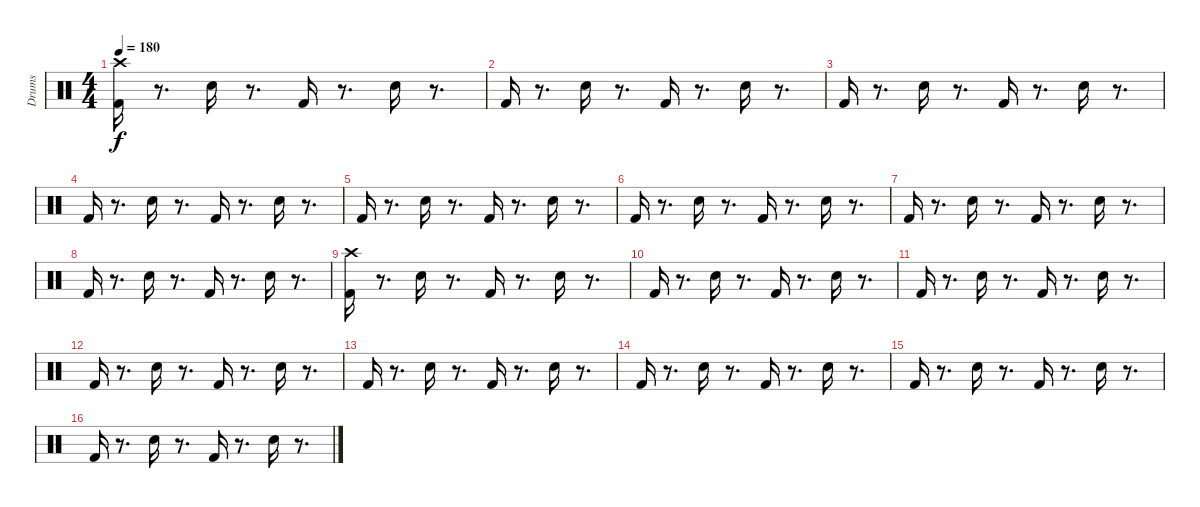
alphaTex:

\track ("Drums" "Drums") {instrument percussion}
\staff {score}
\articulation defaults
\ts (4 4)
\tempo 180
\clef neutral
\ks c
("Kick (hit) 2" "Crash high (hit)").16{dy f} r.8{d} "Snare (hit) 2".16 r.8{d} "Kick (hit) 2".16 r.8{d} "Snare (hit) 2".16 r.8{d} |
"Kick (hit) 2".16 r.8{d} "Snare (hit) 2".16 r.8{d} "Kick (hit) 2".16 r.8{d} "Snare (hit) 2".16 r.8{d} |
"Kick (hit) 2".16 r.8{d} "Snare (hit) 2".16 r.8{d} "Kick (hit) 2".16 r.8{d} "Snare (hit) 2".16 r.8{d} |
"Kick (hit) 2".16 r.8{d} "Snare (hit) 2".16 r.8{d} "Kick (hit) 2".16 r.8{d} "Snare (hit) 2".16 r.8{d} |
"Kick (hit) 2".16 r.8{d} "Snare (hit) 2".16 r.8{d} "Kick (hit) 2".16 r.8{d} "Snare (hit) 2".16 r.8{d} |
"Kick (hit) 2".16 r.8{d} "Snare (hit) 2".16 r.8{d} "Kick (hit) 2".16 r.8{d} "Snare (hit) 2".16 r.8{d} |
"Kick (hit) 2".16 r.8{d} "Snare (hit) 2".16 r.8{d} "Kick (hit) 2".16 r.8{d} "Snare (hit) 2".16 r.8{d} |
"Kick (hit) 2".16 r.8{d} "Snare (hit) 2".16 r.8{d} "Kick (hit) 2".16 r.8{d} "Snare (hit) 2".16 r.8{d} |
("Kick (hit) 2" "Crash high (hit)").16 r.8{d} "Snare (hit) 2".16 r.8{d} "Kick (hit) 2".16 r.8{d} "Snare (hit) 2".16 r.8{d} |
"Kick (hit) 2".16 r.8{d} "Snare (hit) 2".16 r.8{d} "Kick (hit) 2".16 r.8{d} "Snare (hit) 2".16 r.8{d} |
"Kick (hit) 2".16 r.8{d} "Snare (hit) 2".16 r.8{d} "Kick (hit) 2".16 r.8{d} "Snare (hit) 2".16 r.8{d} |
"Kick (hit) 2".16 r.8{d} "Snare (hit) 2".16 r.8{d} "Kick (hit) 2".16 r.8{d} "Snare (hit) 2".16 r.8{d} |
"Kick (hit) 2".16 r.8{d} "Snare (hit) 2".16 r.8{d} "Kick (hit) 2".16 r.8{d} "Snare (hit) 2".16 r.8{d} |
"Kick (hit) 2".16 r.8{d} "Snare (hit) 2".16 r.8{d} "Kick (hit) 2".16 r.8{d} "Snare (hit) 2".16 r.8{d} |
"Kick (hit) 2".16 r.8{d} "Snare (hit) 2".16 r.8{d} "Kick (hit) 2".16 r.8{d} "Snare (hit) 2".16 r.8{d} |
"Kick (hit) 2".16 r.8{d} "Snare (hit) 2".16 r.8{d} "Kick (hit) 2".16 r.8{d} "Snare (hit) 2".16 r.8{d}
